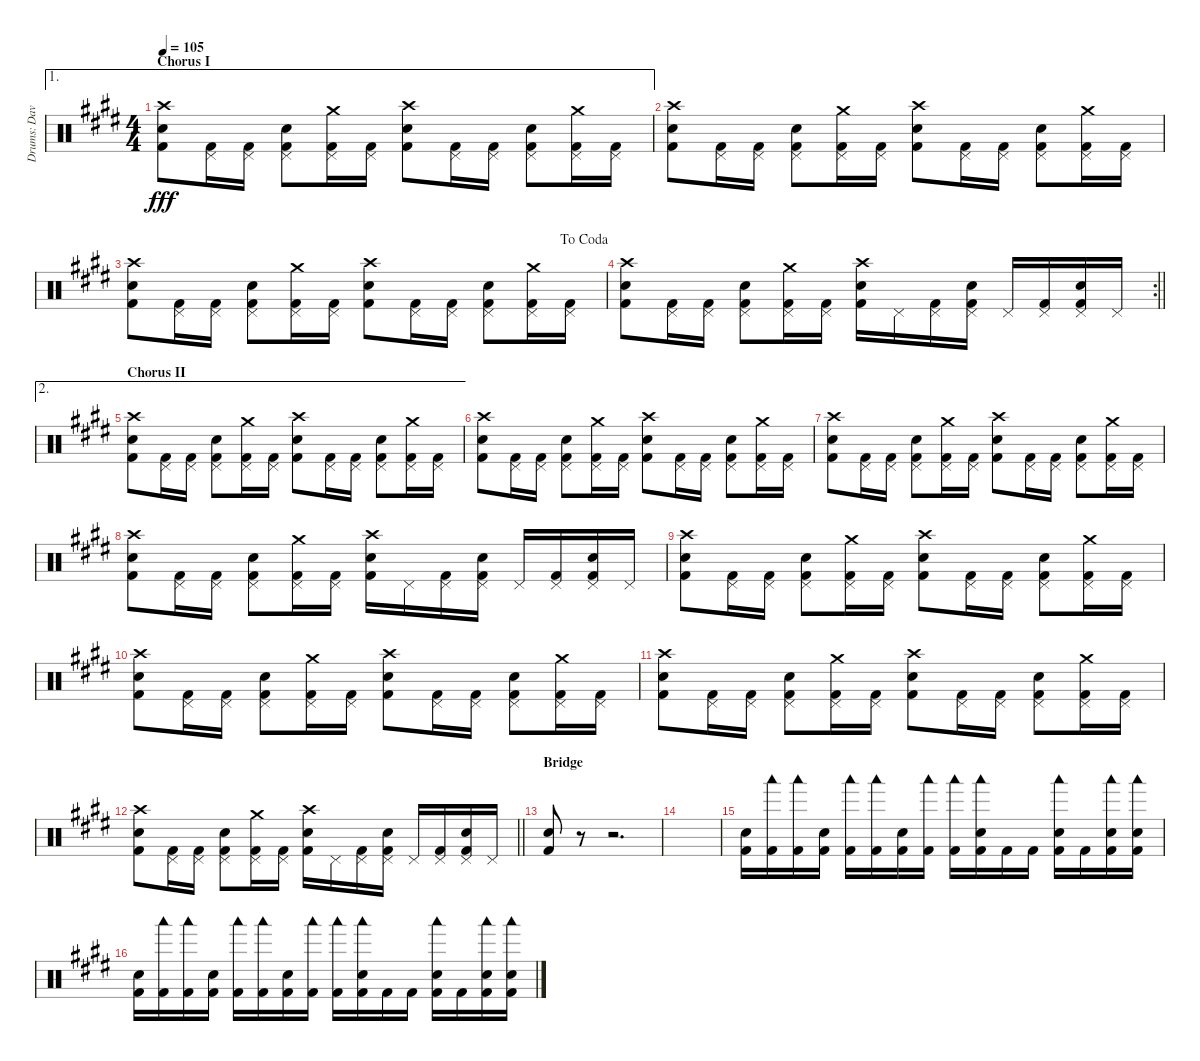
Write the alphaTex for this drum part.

\track ("Drums: Dave" "Drums: Dav") {instrument percussion}
\staff {score}
\articulation defaults
\ae 1
\ts (4 4)
\section ("" "Chorus I")
\tempo 105
\clef neutral
\ks e
("Crash high (hit)" "Snare (hit) 2" "Kick (hit) 2").8{dy fff} ("Pedal Hi-Hat (hit)" "Kick (hit) 2").16 ("Pedal Hi-Hat (hit)" "Kick (hit) 2").16 ("Pedal Hi-Hat (hit)" "Snare (hit) 2" "Kick (hit) 2").8 ("Crash medium (hit)" "Pedal Hi-Hat (hit)" "Kick (hit) 2").16 ("Pedal Hi-Hat (hit)" "Kick (hit) 2").16 ("Crash high (hit)" "Snare (hit) 2" "Kick (hit) 2").8 ("Pedal Hi-Hat (hit)" "Kick (hit) 2").16 ("Pedal Hi-Hat (hit)" "Kick (hit) 2").16 ("Pedal Hi-Hat (hit)" "Snare (hit) 2" "Kick (hit) 2").8 ("Crash medium (hit)" "Pedal Hi-Hat (hit)" "Kick (hit) 2").16 ("Pedal Hi-Hat (hit)" "Kick (hit) 2").16 |
("Crash high (hit)" "Snare (hit) 2" "Kick (hit) 2").8 ("Pedal Hi-Hat (hit)" "Kick (hit) 2").16 ("Pedal Hi-Hat (hit)" "Kick (hit) 2").16 ("Pedal Hi-Hat (hit)" "Snare (hit) 2" "Kick (hit) 2").8 ("Crash medium (hit)" "Pedal Hi-Hat (hit)" "Kick (hit) 2").16 ("Pedal Hi-Hat (hit)" "Kick (hit) 2").16 ("Crash high (hit)" "Snare (hit) 2" "Kick (hit) 2").8 ("Pedal Hi-Hat (hit)" "Kick (hit) 2").16 ("Pedal Hi-Hat (hit)" "Kick (hit) 2").16 ("Pedal Hi-Hat (hit)" "Snare (hit) 2" "Kick (hit) 2").8 ("Crash medium (hit)" "Pedal Hi-Hat (hit)" "Kick (hit) 2").16 ("Pedal Hi-Hat (hit)" "Kick (hit) 2").16 |
\jump dacoda
("Crash high (hit)" "Snare (hit) 2" "Kick (hit) 2").8 ("Pedal Hi-Hat (hit)" "Kick (hit) 2").16 ("Pedal Hi-Hat (hit)" "Kick (hit) 2").16 ("Pedal Hi-Hat (hit)" "Snare (hit) 2" "Kick (hit) 2").8 ("Crash medium (hit)" "Pedal Hi-Hat (hit)" "Kick (hit) 2").16 ("Pedal Hi-Hat (hit)" "Kick (hit) 2").16 ("Crash high (hit)" "Snare (hit) 2" "Kick (hit) 2").8 ("Pedal Hi-Hat (hit)" "Kick (hit) 2").16 ("Pedal Hi-Hat (hit)" "Kick (hit) 2").16 ("Pedal Hi-Hat (hit)" "Snare (hit) 2" "Kick (hit) 2").8 ("Crash medium (hit)" "Pedal Hi-Hat (hit)" "Kick (hit) 2").16 ("Pedal Hi-Hat (hit)" "Kick (hit) 2").16 |
\rc 2
\barLineRight lightlight
("Crash high (hit)" "Snare (hit) 2" "Kick (hit) 2").8 ("Pedal Hi-Hat (hit)" "Kick (hit) 2").16 ("Pedal Hi-Hat (hit)" "Kick (hit) 2").16 ("Pedal Hi-Hat (hit)" "Snare (hit) 2" "Kick (hit) 2").8 ("Crash medium (hit)" "Pedal Hi-Hat (hit)" "Kick (hit) 2").16 ("Pedal Hi-Hat (hit)" "Kick (hit) 2").16 ("Crash high (hit)" "Snare (hit) 2" "Kick (hit) 2").16 "Pedal Hi-Hat (hit)".16 ("Pedal Hi-Hat (hit)" "Kick (hit) 2").16 ("Pedal Hi-Hat (hit)" "Snare (hit) 2" "Kick (hit) 2").16 "Pedal Hi-Hat (hit)".16 ("Pedal Hi-Hat (hit)" "Kick (hit) 2").16 ("Pedal Hi-Hat (hit)" "Snare (hit) 2" "Kick (hit) 2").16 "Pedal Hi-Hat (hit)".16 |
\ae 2
\section ("" "Chorus II")
("Crash high (hit)" "Snare (hit) 2" "Kick (hit) 2").8 ("Pedal Hi-Hat (hit)" "Kick (hit) 2").16 ("Pedal Hi-Hat (hit)" "Kick (hit) 2").16 ("Pedal Hi-Hat (hit)" "Snare (hit) 2" "Kick (hit) 2").8 ("Crash medium (hit)" "Pedal Hi-Hat (hit)" "Kick (hit) 2").16 ("Pedal Hi-Hat (hit)" "Kick (hit) 2").16 ("Crash high (hit)" "Snare (hit) 2" "Kick (hit) 2").8 ("Pedal Hi-Hat (hit)" "Kick (hit) 2").16 ("Pedal Hi-Hat (hit)" "Kick (hit) 2").16 ("Pedal Hi-Hat (hit)" "Snare (hit) 2" "Kick (hit) 2").8 ("Crash medium (hit)" "Pedal Hi-Hat (hit)" "Kick (hit) 2").16 ("Pedal Hi-Hat (hit)" "Kick (hit) 2").16 |
("Crash high (hit)" "Snare (hit) 2" "Kick (hit) 2").8 ("Pedal Hi-Hat (hit)" "Kick (hit) 2").16 ("Pedal Hi-Hat (hit)" "Kick (hit) 2").16 ("Pedal Hi-Hat (hit)" "Snare (hit) 2" "Kick (hit) 2").8 ("Crash medium (hit)" "Pedal Hi-Hat (hit)" "Kick (hit) 2").16 ("Pedal Hi-Hat (hit)" "Kick (hit) 2").16 ("Crash high (hit)" "Snare (hit) 2" "Kick (hit) 2").8 ("Pedal Hi-Hat (hit)" "Kick (hit) 2").16 ("Pedal Hi-Hat (hit)" "Kick (hit) 2").16 ("Pedal Hi-Hat (hit)" "Snare (hit) 2" "Kick (hit) 2").8 ("Crash medium (hit)" "Pedal Hi-Hat (hit)" "Kick (hit) 2").16 ("Pedal Hi-Hat (hit)" "Kick (hit) 2").16 |
("Crash high (hit)" "Snare (hit) 2" "Kick (hit) 2").8 ("Pedal Hi-Hat (hit)" "Kick (hit) 2").16 ("Pedal Hi-Hat (hit)" "Kick (hit) 2").16 ("Pedal Hi-Hat (hit)" "Snare (hit) 2" "Kick (hit) 2").8 ("Crash medium (hit)" "Pedal Hi-Hat (hit)" "Kick (hit) 2").16 ("Pedal Hi-Hat (hit)" "Kick (hit) 2").16 ("Crash high (hit)" "Snare (hit) 2" "Kick (hit) 2").8 ("Pedal Hi-Hat (hit)" "Kick (hit) 2").16 ("Pedal Hi-Hat (hit)" "Kick (hit) 2").16 ("Pedal Hi-Hat (hit)" "Snare (hit) 2" "Kick (hit) 2").8 ("Crash medium (hit)" "Pedal Hi-Hat (hit)" "Kick (hit) 2").16 ("Pedal Hi-Hat (hit)" "Kick (hit) 2").16 |
("Crash high (hit)" "Snare (hit) 2" "Kick (hit) 2").8 ("Pedal Hi-Hat (hit)" "Kick (hit) 2").16 ("Pedal Hi-Hat (hit)" "Kick (hit) 2").16 ("Pedal Hi-Hat (hit)" "Snare (hit) 2" "Kick (hit) 2").8 ("Crash medium (hit)" "Pedal Hi-Hat (hit)" "Kick (hit) 2").16 ("Pedal Hi-Hat (hit)" "Kick (hit) 2").16 ("Crash high (hit)" "Snare (hit) 2" "Kick (hit) 2").16 "Pedal Hi-Hat (hit)".16 ("Pedal Hi-Hat (hit)" "Kick (hit) 2").16 ("Pedal Hi-Hat (hit)" "Snare (hit) 2" "Kick (hit) 2").16 "Pedal Hi-Hat (hit)".16 ("Pedal Hi-Hat (hit)" "Kick (hit) 2").16 ("Pedal Hi-Hat (hit)" "Snare (hit) 2" "Kick (hit) 2").16 "Pedal Hi-Hat (hit)".16 |
("Crash high (hit)" "Snare (hit) 2" "Kick (hit) 2").8 ("Pedal Hi-Hat (hit)" "Kick (hit) 2").16 ("Pedal Hi-Hat (hit)" "Kick (hit) 2").16 ("Pedal Hi-Hat (hit)" "Snare (hit) 2" "Kick (hit) 2").8 ("Crash medium (hit)" "Pedal Hi-Hat (hit)" "Kick (hit) 2").16 ("Pedal Hi-Hat (hit)" "Kick (hit) 2").16 ("Crash high (hit)" "Snare (hit) 2" "Kick (hit) 2").8 ("Pedal Hi-Hat (hit)" "Kick (hit) 2").16 ("Pedal Hi-Hat (hit)" "Kick (hit) 2").16 ("Pedal Hi-Hat (hit)" "Snare (hit) 2" "Kick (hit) 2").8 ("Crash medium (hit)" "Pedal Hi-Hat (hit)" "Kick (hit) 2").16 ("Pedal Hi-Hat (hit)" "Kick (hit) 2").16 |
("Crash high (hit)" "Snare (hit) 2" "Kick (hit) 2").8 ("Pedal Hi-Hat (hit)" "Kick (hit) 2").16 ("Pedal Hi-Hat (hit)" "Kick (hit) 2").16 ("Pedal Hi-Hat (hit)" "Snare (hit) 2" "Kick (hit) 2").8 ("Crash medium (hit)" "Pedal Hi-Hat (hit)" "Kick (hit) 2").16 ("Pedal Hi-Hat (hit)" "Kick (hit) 2").16 ("Crash high (hit)" "Snare (hit) 2" "Kick (hit) 2").8 ("Pedal Hi-Hat (hit)" "Kick (hit) 2").16 ("Pedal Hi-Hat (hit)" "Kick (hit) 2").16 ("Pedal Hi-Hat (hit)" "Snare (hit) 2" "Kick (hit) 2").8 ("Crash medium (hit)" "Pedal Hi-Hat (hit)" "Kick (hit) 2").16 ("Pedal Hi-Hat (hit)" "Kick (hit) 2").16 |
("Crash high (hit)" "Snare (hit) 2" "Kick (hit) 2").8 ("Pedal Hi-Hat (hit)" "Kick (hit) 2").16 ("Pedal Hi-Hat (hit)" "Kick (hit) 2").16 ("Pedal Hi-Hat (hit)" "Snare (hit) 2" "Kick (hit) 2").8 ("Crash medium (hit)" "Pedal Hi-Hat (hit)" "Kick (hit) 2").16 ("Pedal Hi-Hat (hit)" "Kick (hit) 2").16 ("Crash high (hit)" "Snare (hit) 2" "Kick (hit) 2").8 ("Pedal Hi-Hat (hit)" "Kick (hit) 2").16 ("Pedal Hi-Hat (hit)" "Kick (hit) 2").16 ("Pedal Hi-Hat (hit)" "Snare (hit) 2" "Kick (hit) 2").8 ("Crash medium (hit)" "Pedal Hi-Hat (hit)" "Kick (hit) 2").16 ("Pedal Hi-Hat (hit)" "Kick (hit) 2").16 |
\barLineRight lightlight
("Crash high (hit)" "Snare (hit) 2" "Kick (hit) 2").8 ("Pedal Hi-Hat (hit)" "Kick (hit) 2").16 ("Pedal Hi-Hat (hit)" "Kick (hit) 2").16 ("Pedal Hi-Hat (hit)" "Snare (hit) 2" "Kick (hit) 2").8 ("Crash medium (hit)" "Pedal Hi-Hat (hit)" "Kick (hit) 2").16 ("Pedal Hi-Hat (hit)" "Kick (hit) 2").16 ("Crash high (hit)" "Snare (hit) 2" "Kick (hit) 2").16 "Pedal Hi-Hat (hit)".16 ("Pedal Hi-Hat (hit)" "Kick (hit) 2").16 ("Pedal Hi-Hat (hit)" "Snare (hit) 2" "Kick (hit) 2").16 "Pedal Hi-Hat (hit)".16 ("Pedal Hi-Hat (hit)" "Kick (hit) 2").16 ("Pedal Hi-Hat (hit)" "Snare (hit) 2" "Kick (hit) 2").16 "Pedal Hi-Hat (hit)".16 |
\section ("" "Bridge")
("Snare (hit) 2" "Kick (hit) 2").8 r.8 r.2{d} |
|
("Snare (hit) 2" "Kick (hit) 2").16 ("Woodblock low (hit)" "Kick (hit) 2").16 ("Woodblock low (hit)" "Kick (hit) 2").16 ("Snare (hit) 2" "Kick (hit) 2").16 ("Woodblock low (hit)" "Kick (hit) 2").16 ("Woodblock low (hit)" "Kick (hit) 2").16 ("Snare (hit) 2" "Kick (hit) 2").16 ("Woodblock low (hit)" "Kick (hit) 2").16 ("Woodblock low (hit)" "Kick (hit) 2").16 ("Woodblock low (hit)" "Snare (hit) 2" "Kick (hit) 2").16 "Kick (hit) 2".16 "Kick (hit) 2".16 ("Woodblock low (hit)" "Snare (hit) 2" "Kick (hit) 2").16 "Kick (hit) 2".16 ("Woodblock low (hit)" "Snare (hit) 2" "Kick (hit) 2").16 ("Woodblock low (hit)" "Snare (hit) 2" "Kick (hit) 2").16 |
("Snare (hit) 2" "Kick (hit) 2").16 ("Woodblock low (hit)" "Kick (hit) 2").16 ("Woodblock low (hit)" "Kick (hit) 2").16 ("Snare (hit) 2" "Kick (hit) 2").16 ("Woodblock low (hit)" "Kick (hit) 2").16 ("Woodblock low (hit)" "Kick (hit) 2").16 ("Snare (hit) 2" "Kick (hit) 2").16 ("Woodblock low (hit)" "Kick (hit) 2").16 ("Woodblock low (hit)" "Kick (hit) 2").16 ("Woodblock low (hit)" "Snare (hit) 2" "Kick (hit) 2").16 "Kick (hit) 2".16 "Kick (hit) 2".16 ("Woodblock low (hit)" "Snare (hit) 2" "Kick (hit) 2").16 "Kick (hit) 2".16 ("Woodblock low (hit)" "Snare (hit) 2" "Kick (hit) 2").16 ("Woodblock low (hit)" "Snare (hit) 2" "Kick (hit) 2").16
